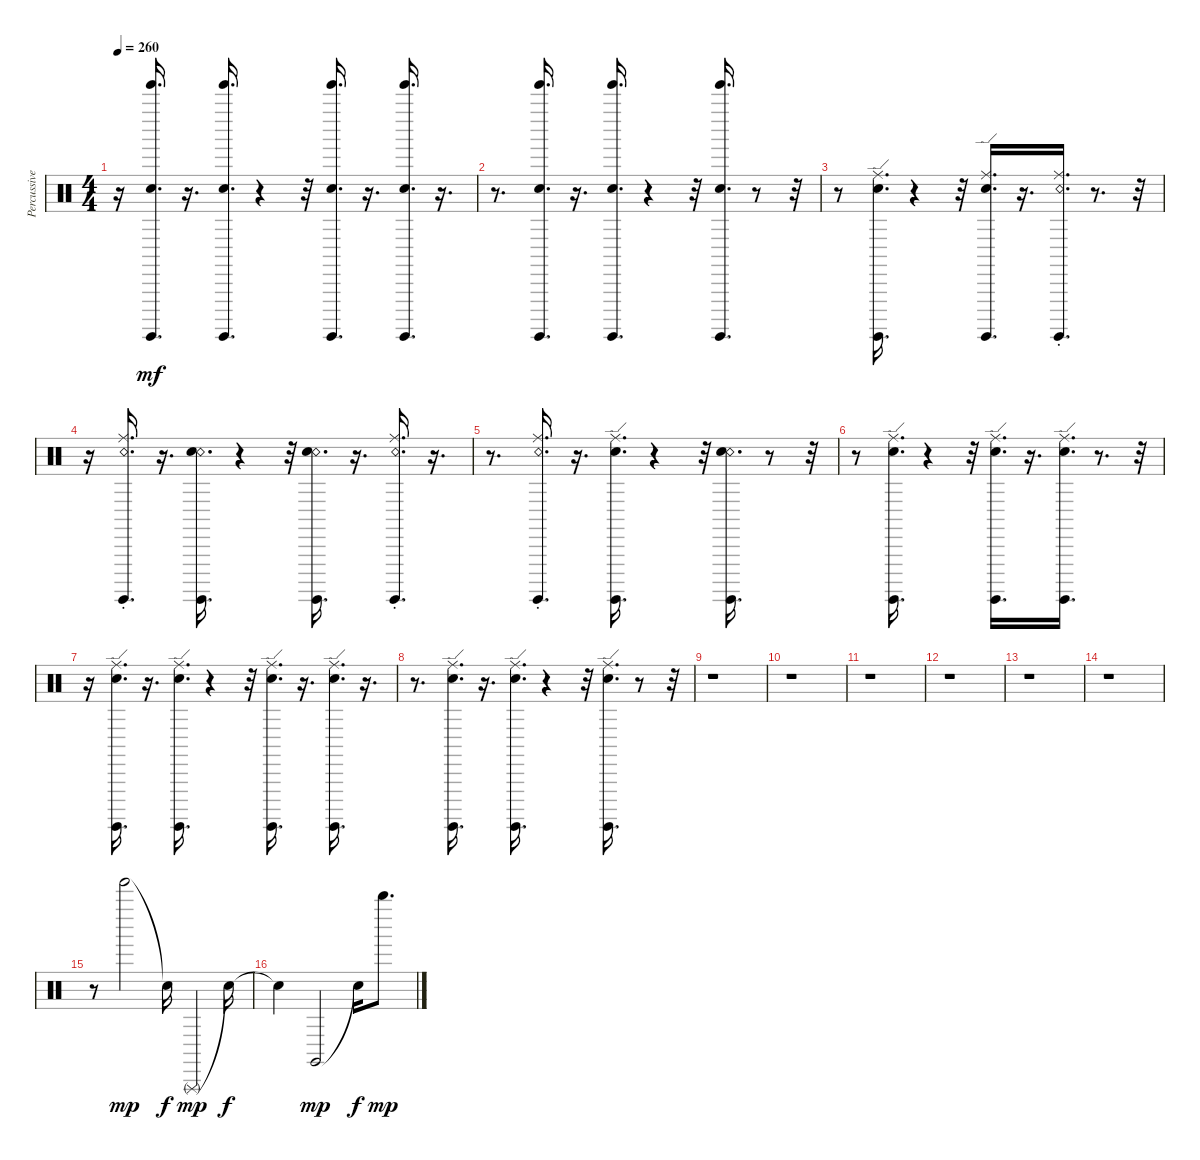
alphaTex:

\track ("Percussive Organ" "Percussive") {instrument percussion}
\staff {score}
\articulation defaults
\ts (4 4)
\tempo 260
\clef neutral
\ks c
r.16{dy mf} ("Tinkle Bell (hit)" "Snare (hit)" "Surdo (hit)").16{d} r.16{d} ("Tinkle Bell (hit)" "Snare (hit)" "Surdo (hit)").16{d} r.4 r.32 ("Tinkle Bell (hit)" "Snare (hit)" "Surdo (hit)").16{d} r.16{d} ("Tinkle Bell (hit)" "Snare (hit)" "Surdo (hit)").16{d} r.16{d} |
r.8{d} ("Tinkle Bell (hit)" "Snare (hit)" "Surdo (hit)").16{d} r.16{d} ("Tinkle Bell (hit)" "Snare (hit)" "Surdo (hit)").16{d} r.4 r.32 ("Tinkle Bell (hit)" "Snare (hit)" "Surdo (hit)").16{d} r.8 r.32 |
r.8 ("Surdo (hit)" "Ride (edge)" "Snare (hit)").16{d} r.4 r.32 ("Surdo (hit)" "Ride (edge)" "Snare (hit)").16{d} r.16{d} ("Surdo (hit)" "Ride (choke)" "Snare (rim shot)").16{d} r.8{d} r.32 |
r.16 ("Surdo (hit)" "Ride (choke)" "Snare (rim shot)").16{d} r.16{d} ("Surdo (hit)" "Snare (rim shot)" "Snare (hit)").16{d} r.4 r.32 ("Surdo (hit)" "Snare (rim shot)" "Snare (hit)").16{d} r.16{d} ("Surdo (hit)" "Ride (choke)" "Snare (rim shot)").16{d} r.16{d} |
r.8{d} ("Surdo (hit)" "Ride (choke)" "Snare (rim shot)").16{d} r.16{d} ("Surdo (hit)" "Ride (edge)" "Snare (hit)").16{d} r.4 r.32 ("Surdo (hit)" "Snare (rim shot)" "Snare (hit)").16{d} r.8 r.32 |
r.8 ("Surdo (hit)" "Ride (edge)" "Snare (hit)").16{d} r.4 r.32 ("Surdo (hit)" "Ride (edge)" "Snare (hit)").16{d} r.16{d} ("Surdo (hit)" "Ride (edge)" "Snare (hit)").16{d} r.8{d} r.32 |
r.16 ("Surdo (hit)" "Ride (edge)" "Snare (hit)").16{d} r.16{d} ("Surdo (hit)" "Ride (edge)" "Snare (hit)").16{d} r.4 r.32 ("Surdo (hit)" "Ride (edge)" "Snare (hit)").16{d} r.16{d} ("Surdo (hit)" "Ride (edge)" "Snare (hit)").16{d} r.16{d} |
r.8{d} ("Surdo (hit)" "Ride (edge)" "Snare (hit)").16{d} r.16{d} ("Surdo (hit)" "Ride (edge)" "Snare (hit)").16{d} r.4 r.32 ("Surdo (hit)" "Ride (edge)" "Snare (hit)").16{d} r.8 r.32 |
r.1 |
r.1 |
r.1 |
r.1 |
r.1 |
r.1 |
r.8 "Tinkle Bell (hit)".2{dy mp} "Snare (hit)"{t}.16{dy f} "Triangle (rnute)".4{dy mp} "Snare (hit)"{t}.16{dy f} |
"Snare (hit)"{t}.4 "Claves (hit)".2{dy mp} "Snare (hit)"{t}.16{dy f} "Whistle high (hit)".8{d dy mp}
